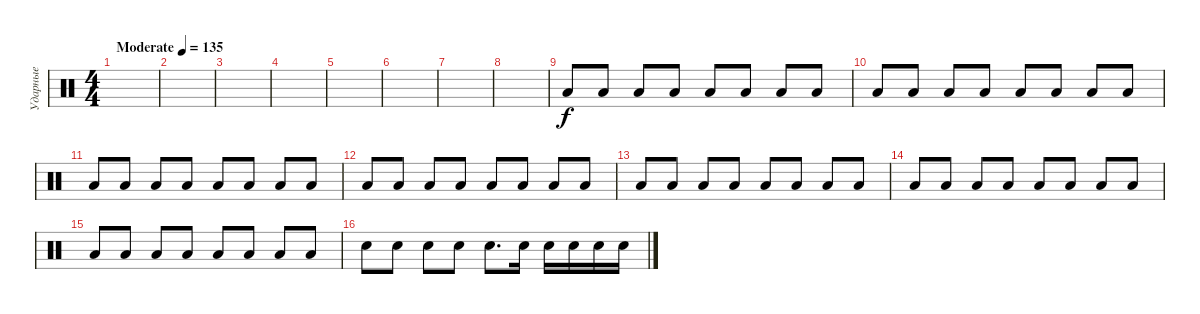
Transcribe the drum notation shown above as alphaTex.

\track ("Ударные" "Ударные") {instrument percussion}
\staff {score}
\articulation defaults
\ts (4 4)
\tempo (135 "Moderate")
\clef neutral
\ks c
|
|
|
|
|
|
|
|
"Low Tom (hit)".8 "Low Tom (hit)".8 "Low Tom (hit)".8 "Low Tom (hit)".8 "Low Tom (hit)".8 "Low Tom (hit)".8 "Low Tom (hit)".8 "Low Tom (hit)".8 |
"Low Tom (hit)".8 "Low Tom (hit)".8 "Low Tom (hit)".8 "Low Tom (hit)".8 "Low Tom (hit)".8 "Low Tom (hit)".8 "Low Tom (hit)".8 "Low Tom (hit)".8 |
"Low Tom (hit)".8 "Low Tom (hit)".8 "Low Tom (hit)".8 "Low Tom (hit)".8 "Low Tom (hit)".8 "Low Tom (hit)".8 "Low Tom (hit)".8 "Low Tom (hit)".8 |
"Low Tom (hit)".8 "Low Tom (hit)".8 "Low Tom (hit)".8 "Low Tom (hit)".8 "Low Tom (hit)".8 "Low Tom (hit)".8 "Low Tom (hit)".8 "Low Tom (hit)".8 |
"Low Tom (hit)".8 "Low Tom (hit)".8 "Low Tom (hit)".8 "Low Tom (hit)".8 "Low Tom (hit)".8 "Low Tom (hit)".8 "Low Tom (hit)".8 "Low Tom (hit)".8 |
"Low Tom (hit)".8 "Low Tom (hit)".8 "Low Tom (hit)".8 "Low Tom (hit)".8 "Low Tom (hit)".8 "Low Tom (hit)".8 "Low Tom (hit)".8 "Low Tom (hit)".8 |
"Low Tom (hit)".8 "Low Tom (hit)".8 "Low Tom (hit)".8 "Low Tom (hit)".8 "Low Tom (hit)".8 "Low Tom (hit)".8 "Low Tom (hit)".8 "Low Tom (hit)".8 |
"Electric Snare (hit)".8 "Electric Snare (hit)".8 "Electric Snare (hit)".8 "Electric Snare (hit)".8 "Electric Snare (hit)".8{d} "Electric Snare (hit)".16 "Electric Snare (hit)".16 "Electric Snare (hit)".16 "Electric Snare (hit)".16 "Electric Snare (hit)".16
